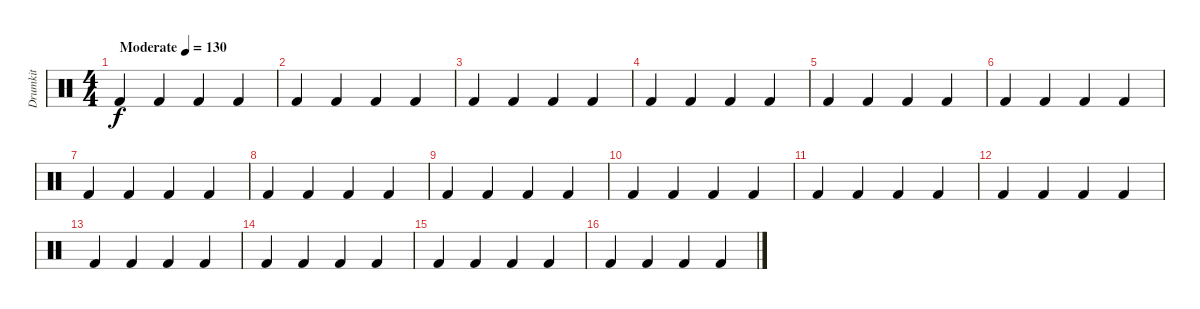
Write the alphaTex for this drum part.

\track ("Drumkit" "Drumkit") {instrument percussion}
\staff {score}
\articulation defaults
\ts (4 4)
\tempo (130 "Moderate")
\clef neutral
\ks c "Kick (hit) 2".4{dy f} "Kick (hit) 2".4 "Kick (hit) 2".4 "Kick (hit) 2".4
|
"Kick (hit) 2".4 "Kick (hit) 2".4 "Kick (hit) 2".4 "Kick (hit) 2".4 |
"Kick (hit) 2".4 "Kick (hit) 2".4 "Kick (hit) 2".4 "Kick (hit) 2".4 |
"Kick (hit) 2".4 "Kick (hit) 2".4 "Kick (hit) 2".4 "Kick (hit) 2".4 |
"Kick (hit) 2".4 "Kick (hit) 2".4 "Kick (hit) 2".4 "Kick (hit) 2".4 |
"Kick (hit) 2".4 "Kick (hit) 2".4 "Kick (hit) 2".4 "Kick (hit) 2".4 |
"Kick (hit) 2".4 "Kick (hit) 2".4 "Kick (hit) 2".4 "Kick (hit) 2".4 |
"Kick (hit) 2".4 "Kick (hit) 2".4 "Kick (hit) 2".4 "Kick (hit) 2".4 |
"Kick (hit) 2".4 "Kick (hit) 2".4 "Kick (hit) 2".4 "Kick (hit) 2".4 |
"Kick (hit) 2".4 "Kick (hit) 2".4 "Kick (hit) 2".4 "Kick (hit) 2".4 |
"Kick (hit) 2".4 "Kick (hit) 2".4 "Kick (hit) 2".4 "Kick (hit) 2".4 |
"Kick (hit) 2".4 "Kick (hit) 2".4 "Kick (hit) 2".4 "Kick (hit) 2".4 |
"Kick (hit) 2".4 "Kick (hit) 2".4 "Kick (hit) 2".4 "Kick (hit) 2".4 |
"Kick (hit) 2".4 "Kick (hit) 2".4 "Kick (hit) 2".4 "Kick (hit) 2".4 |
"Kick (hit) 2".4 "Kick (hit) 2".4 "Kick (hit) 2".4 "Kick (hit) 2".4 |
"Kick (hit) 2".4 "Kick (hit) 2".4 "Kick (hit) 2".4 "Kick (hit) 2".4
